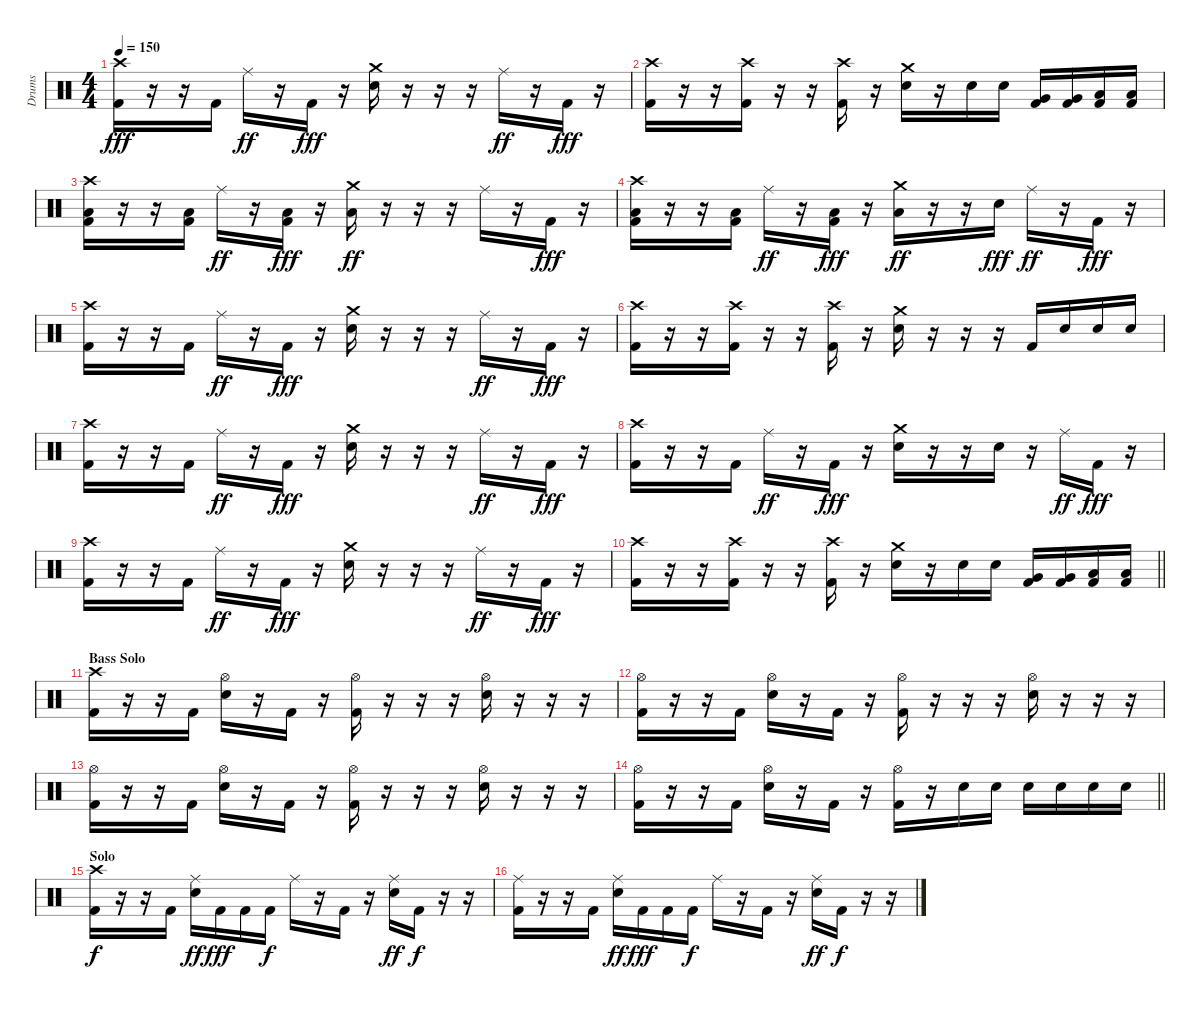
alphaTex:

\track ("Drums" "Drums") {instrument percussion}
\staff {score}
\articulation defaults
\ts (4 4)
\tempo 150
\clef neutral
\ks c
("Crash high (hit)" "Kick (hit) 2").16{dy fff} r.16 r.16 "Kick (hit) 2".16 "Ride (middle)".16{dy ff} r.16 "Kick (hit) 2".16{dy fff} r.16 ("Crash medium (hit)" "Electric Snare (hit)").16 r.16 r.16 r.16 "Ride (middle)".16{dy ff} r.16 "Kick (hit) 2".16{dy fff} r.16 |
("Crash high (hit)" "Kick (hit) 2").16 r.16 r.16 ("Crash high (hit)" "Kick (hit) 2").16 r.16 r.16 ("Crash high (hit)" "Kick (hit) 2").16 r.16 ("Crash medium (hit)" "Electric Snare (hit)").16 r.16 "Electric Snare (hit)".16 "Electric Snare (hit)".16 ("Very Low Tom (hit)" "Kick (hit) 2").16 ("Very Low Tom (hit)" "Kick (hit) 2").16 ("Low Floor Tom (hit)" "Kick (hit) 2").16 ("Low Floor Tom (hit)" "Kick (hit) 2").16 |
("Crash high (hit)" "Low Floor Tom (hit)" "Kick (hit) 2").16 r.16 r.16 ("Low Floor Tom (hit)" "Kick (hit) 2").16 "Ride (middle)".16{dy ff} r.16 ("Low Floor Tom (hit)" "Kick (hit) 2").16{dy fff} r.16 ("Crash medium (hit)" "Low Floor Tom (hit)").16{dy ff} r.16 r.16 r.16 "Ride (middle)".16 r.16 "Kick (hit) 2".16{dy fff} r.16 |
("Crash high (hit)" "Low Floor Tom (hit)" "Kick (hit) 2").16 r.16 r.16 ("Low Floor Tom (hit)" "Kick (hit) 2").16 "Ride (middle)".16{dy ff} r.16 ("Low Floor Tom (hit)" "Kick (hit) 2").16{dy fff} r.16 ("Crash medium (hit)" "Low Floor Tom (hit)").16{dy ff} r.16 r.16 "Electric Snare (hit)".16{dy fff} "Ride (middle)".16{dy ff} r.16 "Kick (hit) 2".16{dy fff} r.16 |
("Crash high (hit)" "Kick (hit) 2").16 r.16 r.16 "Kick (hit) 2".16 "Ride (middle)".16{dy ff} r.16 "Kick (hit) 2".16{dy fff} r.16 ("Crash medium (hit)" "Electric Snare (hit)").16 r.16 r.16 r.16 "Ride (middle)".16{dy ff} r.16 "Kick (hit) 2".16{dy fff} r.16 |
("Crash high (hit)" "Kick (hit) 2").16 r.16 r.16 ("Crash high (hit)" "Kick (hit) 2").16 r.16 r.16 ("Crash high (hit)" "Kick (hit) 2").16 r.16 ("Crash medium (hit)" "Electric Snare (hit)").16 r.16 r.16 r.16 "Kick (hit) 2".16 "Electric Snare (hit)".16 "Electric Snare (hit)".16 "Electric Snare (hit)".16 |
("Crash high (hit)" "Kick (hit) 2").16 r.16 r.16 "Kick (hit) 2".16 "Ride (middle)".16{dy ff} r.16 "Kick (hit) 2".16{dy fff} r.16 ("Crash medium (hit)" "Electric Snare (hit)").16 r.16 r.16 r.16 "Ride (middle)".16{dy ff} r.16 "Kick (hit) 2".16{dy fff} r.16 |
("Crash high (hit)" "Kick (hit) 2").16 r.16 r.16 "Kick (hit) 2".16 "Ride (middle)".16{dy ff} r.16 "Kick (hit) 2".16{dy fff} r.16 ("Crash medium (hit)" "Electric Snare (hit)").16 r.16 r.16 "Electric Snare (hit)".16 r.16 "Ride (middle)".16{dy ff} "Kick (hit) 2".16{dy fff} r.16 |
("Crash high (hit)" "Kick (hit) 2").16 r.16 r.16 "Kick (hit) 2".16 "Ride (middle)".16{dy ff} r.16 "Kick (hit) 2".16{dy fff} r.16 ("Crash medium (hit)" "Electric Snare (hit)").16 r.16 r.16 r.16 "Ride (middle)".16{dy ff} r.16 "Kick (hit) 2".16{dy fff} r.16 |
\barLineRight lightlight
("Crash high (hit)" "Kick (hit) 2").16 r.16 r.16 ("Crash high (hit)" "Kick (hit) 2").16 r.16 r.16 ("Crash high (hit)" "Kick (hit) 2").16 r.16 ("Crash medium (hit)" "Electric Snare (hit)").16 r.16 "Electric Snare (hit)".16 "Electric Snare (hit)".16 ("Very Low Tom (hit)" "Kick (hit) 2").16 ("Very Low Tom (hit)" "Kick (hit) 2").16 ("Low Floor Tom (hit)" "Kick (hit) 2").16 ("Low Floor Tom (hit)" "Kick (hit) 2").16 |
\section ("" "Bass Solo")
("Crash high (hit)" "Kick (hit) 2").16 r.16 r.16 "Kick (hit) 2".16 ("Hi-Hat (open)" "Electric Snare (hit)").16 r.16 "Kick (hit) 2".16 r.16 ("Hi-Hat (open)" "Kick (hit) 2").16 r.16 r.16 r.16 ("Hi-Hat (open)" "Electric Snare (hit)").16 r.16 r.16 r.16 |
("Hi-Hat (open)" "Kick (hit) 2").16 r.16 r.16 "Kick (hit) 2".16 ("Hi-Hat (open)" "Electric Snare (hit)").16 r.16 "Kick (hit) 2".16 r.16 ("Hi-Hat (open)" "Kick (hit) 2").16 r.16 r.16 r.16 ("Hi-Hat (open)" "Electric Snare (hit)").16 r.16 r.16 r.16 |
("Hi-Hat (open)" "Kick (hit) 2").16 r.16 r.16 "Kick (hit) 2".16 ("Hi-Hat (open)" "Electric Snare (hit)").16 r.16 "Kick (hit) 2".16 r.16 ("Hi-Hat (open)" "Kick (hit) 2").16 r.16 r.16 r.16 ("Hi-Hat (open)" "Electric Snare (hit)").16 r.16 r.16 r.16 |
\barLineRight lightlight
("Hi-Hat (open)" "Kick (hit) 2").16 r.16 r.16 "Kick (hit) 2".16 ("Hi-Hat (open)" "Electric Snare (hit)").16 r.16 "Kick (hit) 2".16 r.16 ("Hi-Hat (open)" "Kick (hit) 2").16 r.16 "Electric Snare (hit)".16 "Electric Snare (hit)".16 "Electric Snare (hit)".16 "Electric Snare (hit)".16 "Electric Snare (hit)".16 "Electric Snare (hit)".16 |
\section ("" "Solo")
("Crash high (hit)" "Kick (hit) 2").16{dy f} r.16 r.16 "Kick (hit) 2".16 ("Ride (middle)" "Electric Snare (hit)").16{dy ff} "Kick (hit) 2".16{dy fff} "Kick (hit) 2".16 "Kick (hit) 2".16{dy f} "Ride (middle)".16 r.16 "Kick (hit) 2".16 r.16 ("Ride (middle)" "Electric Snare (hit)").16{dy ff} "Kick (hit) 2".16{dy f} r.16 r.16 |
("Ride (middle)" "Kick (hit) 2").16 r.16 r.16 "Kick (hit) 2".16 ("Ride (middle)" "Electric Snare (hit)").16{dy ff} "Kick (hit) 2".16{dy fff} "Kick (hit) 2".16 "Kick (hit) 2".16{dy f} "Ride (middle)".16 r.16 "Kick (hit) 2".16 r.16 ("Ride (middle)" "Electric Snare (hit)").16{dy ff} "Kick (hit) 2".16{dy f} r.16 r.16
